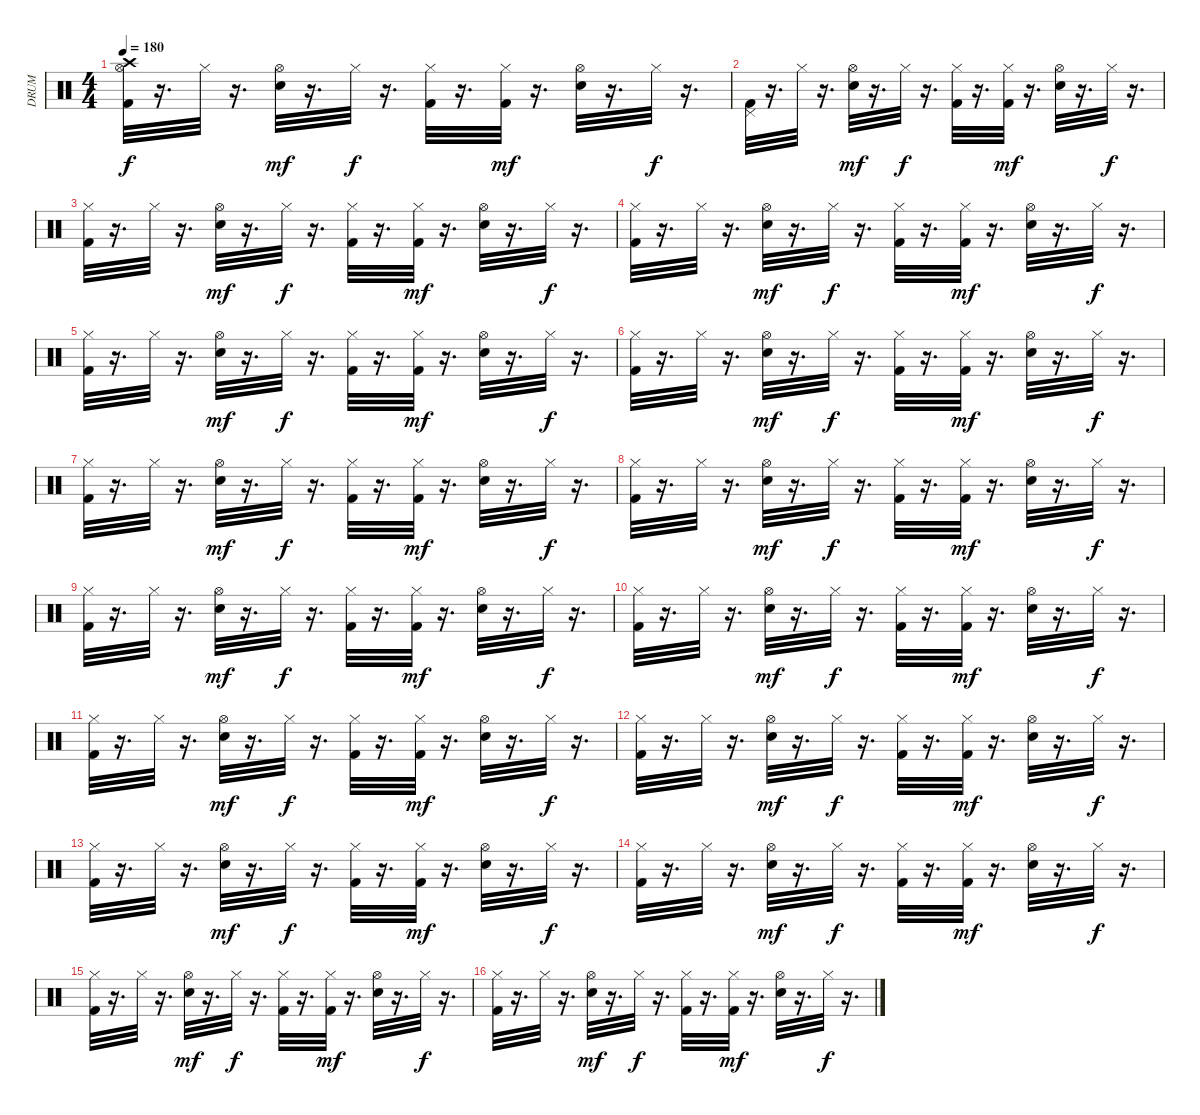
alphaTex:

\track ("DRUM" "DRUM") {instrument percussion}
\staff {score}
\articulation defaults
\ts (4 4)
\tempo 180
\clef neutral
\ks c
("Hi-Hat (open)" "Crash high (hit)" "Kick (hit) 2").32{dy f} r.16{d} "Hi-Hat (closed)".32 r.16{d} ("Snare (hit) 2" "Hi-Hat (open)").32{dy mf} r.16{d} "Hi-Hat (closed)".32{dy f} r.16{d} ("Hi-Hat (closed)" "Kick (hit) 2").32 r.16{d} ("Hi-Hat (closed)" "Kick (hit) 2").32{dy mf} r.16{d} ("Snare (hit) 2" "Hi-Hat (open)").32 r.16{d} "Hi-Hat (closed)".32{dy f} r.16{d} |
("Kick (hit) 2" "Pedal Hi-Hat (hit)").32 r.16{d} "Hi-Hat (closed)".32 r.16{d} ("Snare (hit) 2" "Hi-Hat (open)").32{dy mf} r.16{d} "Hi-Hat (closed)".32{dy f} r.16{d} ("Kick (hit) 2" "Hi-Hat (closed)").32 r.16{d} ("Kick (hit) 2" "Hi-Hat (closed)").32{dy mf} r.16{d} ("Snare (hit) 2" "Hi-Hat (open)").32 r.16{d} "Hi-Hat (closed)".32{dy f} r.16{d} |
("Kick (hit) 2" "Hi-Hat (closed)").32 r.16{d} "Hi-Hat (closed)".32 r.16{d} ("Snare (hit) 2" "Hi-Hat (open)").32{dy mf} r.16{d} "Hi-Hat (closed)".32{dy f} r.16{d} ("Kick (hit) 2" "Hi-Hat (closed)").32 r.16{d} ("Kick (hit) 2" "Hi-Hat (closed)").32{dy mf} r.16{d} ("Snare (hit) 2" "Hi-Hat (open)").32 r.16{d} "Hi-Hat (closed)".32{dy f} r.16{d} |
("Kick (hit) 2" "Hi-Hat (closed)").32 r.16{d} "Hi-Hat (closed)".32 r.16{d} ("Snare (hit) 2" "Hi-Hat (open)").32{dy mf} r.16{d} "Hi-Hat (closed)".32{dy f} r.16{d} ("Kick (hit) 2" "Hi-Hat (closed)").32 r.16{d} ("Kick (hit) 2" "Hi-Hat (closed)").32{dy mf} r.16{d} ("Snare (hit) 2" "Hi-Hat (open)").32 r.16{d} "Hi-Hat (closed)".32{dy f} r.16{d} |
("Kick (hit) 2" "Hi-Hat (closed)").32 r.16{d} "Hi-Hat (closed)".32 r.16{d} ("Snare (hit) 2" "Hi-Hat (open)").32{dy mf} r.16{d} "Hi-Hat (closed)".32{dy f} r.16{d} ("Kick (hit) 2" "Hi-Hat (closed)").32 r.16{d} ("Kick (hit) 2" "Hi-Hat (closed)").32{dy mf} r.16{d} ("Snare (hit) 2" "Hi-Hat (open)").32 r.16{d} "Hi-Hat (closed)".32{dy f} r.16{d} |
("Kick (hit) 2" "Hi-Hat (closed)").32 r.16{d} "Hi-Hat (closed)".32 r.16{d} ("Snare (hit) 2" "Hi-Hat (open)").32{dy mf} r.16{d} "Hi-Hat (closed)".32{dy f} r.16{d} ("Kick (hit) 2" "Hi-Hat (closed)").32 r.16{d} ("Kick (hit) 2" "Hi-Hat (closed)").32{dy mf} r.16{d} ("Snare (hit) 2" "Hi-Hat (open)").32 r.16{d} "Hi-Hat (closed)".32{dy f} r.16{d} |
("Kick (hit) 2" "Hi-Hat (closed)").32 r.16{d} "Hi-Hat (closed)".32 r.16{d} ("Snare (hit) 2" "Hi-Hat (open)").32{dy mf} r.16{d} "Hi-Hat (closed)".32{dy f} r.16{d} ("Kick (hit) 2" "Hi-Hat (closed)").32 r.16{d} ("Kick (hit) 2" "Hi-Hat (closed)").32{dy mf} r.16{d} ("Snare (hit) 2" "Hi-Hat (open)").32 r.16{d} "Hi-Hat (closed)".32{dy f} r.16{d} |
("Kick (hit) 2" "Hi-Hat (closed)").32 r.16{d} "Hi-Hat (closed)".32 r.16{d} ("Snare (hit) 2" "Hi-Hat (open)").32{dy mf} r.16{d} "Hi-Hat (closed)".32{dy f} r.16{d} ("Kick (hit) 2" "Hi-Hat (closed)").32 r.16{d} ("Kick (hit) 2" "Hi-Hat (closed)").32{dy mf} r.16{d} ("Snare (hit) 2" "Hi-Hat (open)").32 r.16{d} "Hi-Hat (closed)".32{dy f} r.16{d} |
("Kick (hit) 2" "Hi-Hat (closed)").32 r.16{d} "Hi-Hat (closed)".32 r.16{d} ("Snare (hit) 2" "Hi-Hat (open)").32{dy mf} r.16{d} "Hi-Hat (closed)".32{dy f} r.16{d} ("Kick (hit) 2" "Hi-Hat (closed)").32 r.16{d} ("Kick (hit) 2" "Hi-Hat (closed)").32{dy mf} r.16{d} ("Snare (hit) 2" "Hi-Hat (open)").32 r.16{d} "Hi-Hat (closed)".32{dy f} r.16{d} |
("Kick (hit) 2" "Hi-Hat (closed)").32 r.16{d} "Hi-Hat (closed)".32 r.16{d} ("Snare (hit) 2" "Hi-Hat (open)").32{dy mf} r.16{d} "Hi-Hat (closed)".32{dy f} r.16{d} ("Kick (hit) 2" "Hi-Hat (closed)").32 r.16{d} ("Kick (hit) 2" "Hi-Hat (closed)").32{dy mf} r.16{d} ("Snare (hit) 2" "Hi-Hat (open)").32 r.16{d} "Hi-Hat (closed)".32{dy f} r.16{d} |
("Kick (hit) 2" "Hi-Hat (closed)").32 r.16{d} "Hi-Hat (closed)".32 r.16{d} ("Snare (hit) 2" "Hi-Hat (open)").32{dy mf} r.16{d} "Hi-Hat (closed)".32{dy f} r.16{d} ("Kick (hit) 2" "Hi-Hat (closed)").32 r.16{d} ("Kick (hit) 2" "Hi-Hat (closed)").32{dy mf} r.16{d} ("Snare (hit) 2" "Hi-Hat (open)").32 r.16{d} "Hi-Hat (closed)".32{dy f} r.16{d} |
("Kick (hit) 2" "Hi-Hat (closed)").32 r.16{d} "Hi-Hat (closed)".32 r.16{d} ("Snare (hit) 2" "Hi-Hat (open)").32{dy mf} r.16{d} "Hi-Hat (closed)".32{dy f} r.16{d} ("Kick (hit) 2" "Hi-Hat (closed)").32 r.16{d} ("Kick (hit) 2" "Hi-Hat (closed)").32{dy mf} r.16{d} ("Snare (hit) 2" "Hi-Hat (open)").32 r.16{d} "Hi-Hat (closed)".32{dy f} r.16{d} |
("Kick (hit) 2" "Hi-Hat (closed)").32 r.16{d} "Hi-Hat (closed)".32 r.16{d} ("Snare (hit) 2" "Hi-Hat (open)").32{dy mf} r.16{d} "Hi-Hat (closed)".32{dy f} r.16{d} ("Kick (hit) 2" "Hi-Hat (closed)").32 r.16{d} ("Kick (hit) 2" "Hi-Hat (closed)").32{dy mf} r.16{d} ("Snare (hit) 2" "Hi-Hat (open)").32 r.16{d} "Hi-Hat (closed)".32{dy f} r.16{d} |
("Kick (hit) 2" "Hi-Hat (closed)").32 r.16{d} "Hi-Hat (closed)".32 r.16{d} ("Snare (hit) 2" "Hi-Hat (open)").32{dy mf} r.16{d} "Hi-Hat (closed)".32{dy f} r.16{d} ("Kick (hit) 2" "Hi-Hat (closed)").32 r.16{d} ("Kick (hit) 2" "Hi-Hat (closed)").32{dy mf} r.16{d} ("Snare (hit) 2" "Hi-Hat (open)").32 r.16{d} "Hi-Hat (closed)".32{dy f} r.16{d} |
("Kick (hit) 2" "Hi-Hat (closed)").32 r.16{d} "Hi-Hat (closed)".32 r.16{d} ("Snare (hit) 2" "Hi-Hat (open)").32{dy mf} r.16{d} "Hi-Hat (closed)".32{dy f} r.16{d} ("Kick (hit) 2" "Hi-Hat (closed)").32 r.16{d} ("Kick (hit) 2" "Hi-Hat (closed)").32{dy mf} r.16{d} ("Snare (hit) 2" "Hi-Hat (open)").32 r.16{d} "Hi-Hat (closed)".32{dy f} r.16{d} |
("Kick (hit) 2" "Hi-Hat (closed)").32 r.16{d} "Hi-Hat (closed)".32 r.16{d} ("Snare (hit) 2" "Hi-Hat (open)").32{dy mf} r.16{d} "Hi-Hat (closed)".32{dy f} r.16{d} ("Kick (hit) 2" "Hi-Hat (closed)").32 r.16{d} ("Kick (hit) 2" "Hi-Hat (closed)").32{dy mf} r.16{d} ("Snare (hit) 2" "Hi-Hat (open)").32 r.16{d} "Hi-Hat (closed)".32{dy f} r.16{d}
